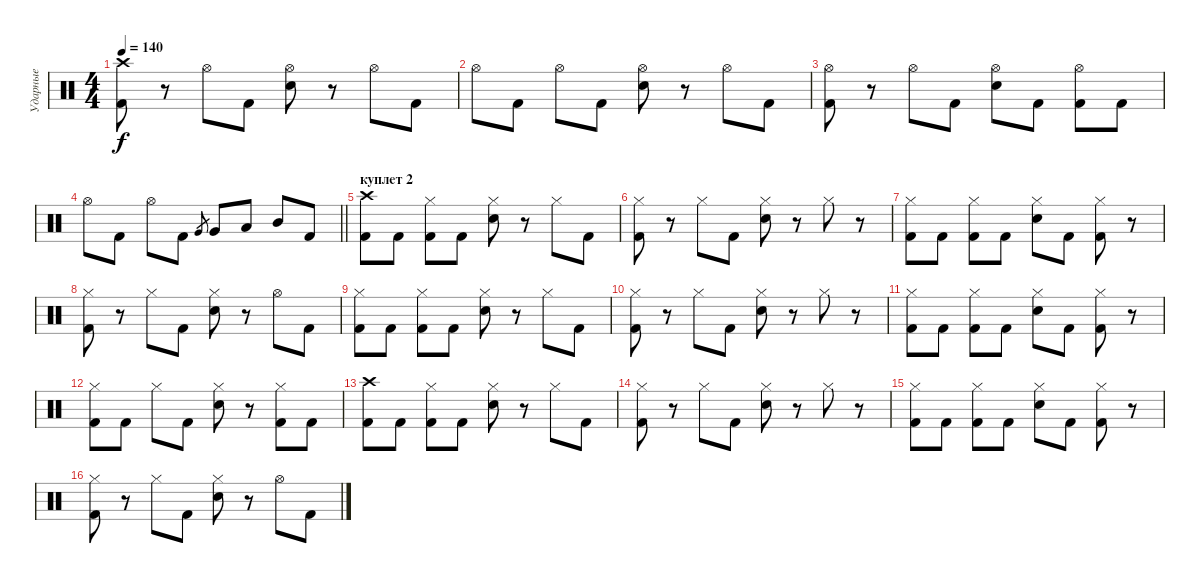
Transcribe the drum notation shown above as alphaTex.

\track ("Ударные" "Ударные") {instrument percussion}
\staff {score}
\articulation defaults
\ts (4 4)
\tempo 140
\clef neutral
\ks c
("Crash high (hit)" "Kick (hit) 2").8{dy f} r.8 "Hi-Hat (open)".8 "Kick (hit) 2".8 ("Hi-Hat (open)" "Snare (hit) 2").8 r.8 "Hi-Hat (open)".8 "Kick (hit) 2".8 |
"Hi-Hat (open)".8 "Kick (hit) 2".8 "Hi-Hat (open)".8 "Kick (hit) 2".8 ("Hi-Hat (open)" "Snare (hit) 2").8 r.8 "Hi-Hat (open)".8 "Kick (hit) 2".8 |
("Hi-Hat (open)" "Kick (hit) 2").8 r.8 "Hi-Hat (open)".8 "Kick (hit) 2".8 ("Hi-Hat (open)" "Snare (hit) 2").8 "Kick (hit) 2".8 ("Hi-Hat (open)" "Kick (hit) 2").8 "Kick (hit) 2".8 |
\barLineRight lightlight "Hi-Hat (open)".8 "Kick (hit) 2".8 "Hi-Hat (open)".8 "Kick (hit) 2".8 "Very Low Tom (hit)".8{gr} "Very Low Tom (hit)".8 "Low Tom (hit)".8 "Mid Tom (hit)".8 "Kick (hit) 2".8
|
\section ("" "куплет 2")
("Crash high (hit)" "Kick (hit) 2").8 "Kick (hit) 2".8 ("Hi-Hat (closed)" "Kick (hit) 2").8 "Kick (hit) 2".8 ("Hi-Hat (closed)" "Snare (hit) 2").8 r.8 "Hi-Hat (closed)".8 "Kick (hit) 2".8 |
("Hi-Hat (closed)" "Kick (hit) 2").8 r.8 "Hi-Hat (closed)".8 "Kick (hit) 2".8 ("Hi-Hat (closed)" "Snare (hit) 2").8 r.8 "Hi-Hat (closed)".8 r.8 |
("Hi-Hat (closed)" "Kick (hit) 2").8 "Kick (hit) 2".8 ("Hi-Hat (closed)" "Kick (hit) 2").8 "Kick (hit) 2".8 ("Hi-Hat (closed)" "Snare (hit) 2").8 "Kick (hit) 2".8 ("Hi-Hat (closed)" "Kick (hit) 2").8 r.8 |
("Hi-Hat (closed)" "Kick (hit) 2").8 r.8 "Hi-Hat (closed)".8 "Kick (hit) 2".8 ("Hi-Hat (closed)" "Snare (hit) 2").8 r.8 "Hi-Hat (open)".8 "Kick (hit) 2".8 |
("Hi-Hat (closed)" "Kick (hit) 2").8 "Kick (hit) 2".8 ("Hi-Hat (closed)" "Kick (hit) 2").8 "Kick (hit) 2".8 ("Hi-Hat (closed)" "Snare (hit) 2").8 r.8 "Hi-Hat (closed)".8 "Kick (hit) 2".8 |
("Hi-Hat (closed)" "Kick (hit) 2").8 r.8 "Hi-Hat (closed)".8 "Kick (hit) 2".8 ("Hi-Hat (closed)" "Snare (hit) 2").8 r.8 "Hi-Hat (closed)".8 r.8 |
("Hi-Hat (closed)" "Kick (hit) 2").8 "Kick (hit) 2".8 ("Hi-Hat (closed)" "Kick (hit) 2").8 "Kick (hit) 2".8 ("Hi-Hat (closed)" "Snare (hit) 2").8 "Kick (hit) 2".8 ("Hi-Hat (closed)" "Kick (hit) 2").8 r.8 |
("Hi-Hat (closed)" "Kick (hit) 2").8 "Kick (hit) 2".8 "Hi-Hat (closed)".8 "Kick (hit) 2".8 ("Hi-Hat (closed)" "Snare (hit) 2").8 r.8 ("Hi-Hat (closed)" "Kick (hit) 2").8 "Kick (hit) 2".8 |
("Crash high (hit)" "Kick (hit) 2").8 "Kick (hit) 2".8 ("Hi-Hat (closed)" "Kick (hit) 2").8 "Kick (hit) 2".8 ("Hi-Hat (closed)" "Snare (hit) 2").8 r.8 "Hi-Hat (closed)".8 "Kick (hit) 2".8 |
("Hi-Hat (closed)" "Kick (hit) 2").8 r.8 "Hi-Hat (closed)".8 "Kick (hit) 2".8 ("Hi-Hat (closed)" "Snare (hit) 2").8 r.8 "Hi-Hat (closed)".8 r.8 |
("Hi-Hat (closed)" "Kick (hit) 2").8 "Kick (hit) 2".8 ("Hi-Hat (closed)" "Kick (hit) 2").8 "Kick (hit) 2".8 ("Hi-Hat (closed)" "Snare (hit) 2").8 "Kick (hit) 2".8 ("Hi-Hat (closed)" "Kick (hit) 2").8 r.8 |
("Hi-Hat (closed)" "Kick (hit) 2").8 r.8 "Hi-Hat (closed)".8 "Kick (hit) 2".8 ("Hi-Hat (closed)" "Snare (hit) 2").8 r.8 "Hi-Hat (open)".8 "Kick (hit) 2".8
